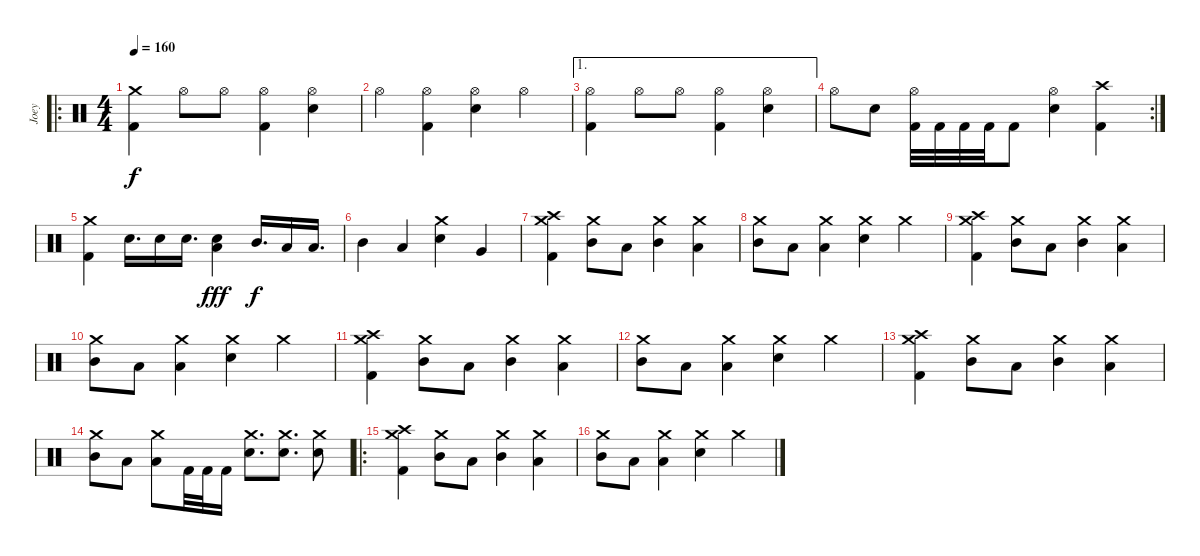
\track ("Joey" "Joey") {instrument percussion}
\staff {score}
\articulation defaults
\ro
\ts (4 4)
\tempo 160
\clef neutral
\ks c
("Crash medium (hit)" "Kick (hit) 2").4{dy f} "Hi-Hat (open)".8 "Hi-Hat (open)".8 ("Hi-Hat (open)" "Kick (hit) 2").4 ("Hi-Hat (open)" "Electric Snare (hit)").4 |
"Hi-Hat (open)".4 ("Hi-Hat (open)" "Kick (hit) 2").4 ("Hi-Hat (open)" "Electric Snare (hit)").4 "Hi-Hat (open)".4 |
\ae 1
("Hi-Hat (open)" "Kick (hit) 2").4 "Hi-Hat (open)".8 "Hi-Hat (open)".8 ("Hi-Hat (open)" "Kick (hit) 2").4 ("Hi-Hat (open)" "Electric Snare (hit)").4 |
\rc 2 "Hi-Hat (open)".8 "Electric Snare (hit)".8
("Hi-Hat (open)" "Kick (hit) 2").32 "Kick (hit) 2".32 "Kick (hit) 2".32 "Kick (hit) 2".32 "Kick (hit) 2".8 ("Hi-Hat (open)" "Electric Snare (hit)").4 ("Crash high (hit)" "Kick (hit) 2").4 |
("Crash medium (hit)" "Kick (hit) 2").4 "Electric Snare (hit)".16{d} "Electric Snare (hit)".16 "Electric Snare (hit)".16{d} ("Electric Snare (hit)" "Low Floor Tom (hit)").4{dy fff} "Mid Tom (hit)".16{d dy f} "Low Tom (hit)".16 "Low Tom (hit)".16{d} |
"Mid Tom (hit)".4 "Low Tom (hit)".4 ("Crash medium (hit)" "Electric Snare (hit)").4 "Very Low Tom (hit)".4 |
("Crash high (hit)" "Crash medium (hit)" "Kick (hit) 2").4 ("Crash medium (hit)" "Mid Tom (hit)").8 "Low Tom (hit)".8 ("Crash medium (hit)" "Mid Tom (hit)").4 ("Crash medium (hit)" "Low Tom (hit)").4 |
("Crash medium (hit)" "Mid Tom (hit)").8 "Low Tom (hit)".8 ("Crash medium (hit)" "Low Tom (hit)").4 ("Crash medium (hit)" "Electric Snare (hit)").4 "Crash medium (hit)".4 |
("Crash high (hit)" "Crash medium (hit)" "Kick (hit) 2").4 ("Crash medium (hit)" "Mid Tom (hit)").8 "Low Tom (hit)".8 ("Crash medium (hit)" "Mid Tom (hit)").4 ("Crash medium (hit)" "Low Tom (hit)").4 |
("Crash medium (hit)" "Mid Tom (hit)").8 "Low Tom (hit)".8 ("Crash medium (hit)" "Low Tom (hit)").4 ("Crash medium (hit)" "Electric Snare (hit)").4 "Crash medium (hit)".4 |
("Crash high (hit)" "Crash medium (hit)" "Kick (hit) 2").4 ("Crash medium (hit)" "Mid Tom (hit)").8 "Low Tom (hit)".8 ("Crash medium (hit)" "Mid Tom (hit)").4 ("Crash medium (hit)" "Low Tom (hit)").4 |
("Crash medium (hit)" "Mid Tom (hit)").8 "Low Tom (hit)".8 ("Crash medium (hit)" "Low Tom (hit)").4 ("Crash medium (hit)" "Electric Snare (hit)").4 "Crash medium (hit)".4 |
("Crash high (hit)" "Crash medium (hit)" "Kick (hit) 2").4 ("Crash medium (hit)" "Mid Tom (hit)").8 "Low Tom (hit)".8 ("Crash medium (hit)" "Mid Tom (hit)").4 ("Crash medium (hit)" "Low Tom (hit)").4 |
("Crash medium (hit)" "Mid Tom (hit)").8 "Low Tom (hit)".8 ("Crash medium (hit)" "Low Tom (hit)").8 "Kick (hit) 2".32 "Kick (hit) 2".32 "Kick (hit) 2".16 ("Crash medium (hit)" "Electric Snare (hit)").8{d} ("Crash medium (hit)" "Electric Snare (hit)").8{d} ("Crash medium (hit)" "Electric Snare (hit)").8 |
\ro
("Crash high (hit)" "Crash medium (hit)" "Kick (hit) 2").4 ("Crash medium (hit)" "Mid Tom (hit)").8 "Low Tom (hit)".8 ("Crash medium (hit)" "Mid Tom (hit)").4 ("Crash medium (hit)" "Low Tom (hit)").4 |
("Crash medium (hit)" "Mid Tom (hit)").8 "Low Tom (hit)".8 ("Crash medium (hit)" "Low Tom (hit)").4 ("Crash medium (hit)" "Electric Snare (hit)").4 "Crash medium (hit)".4
